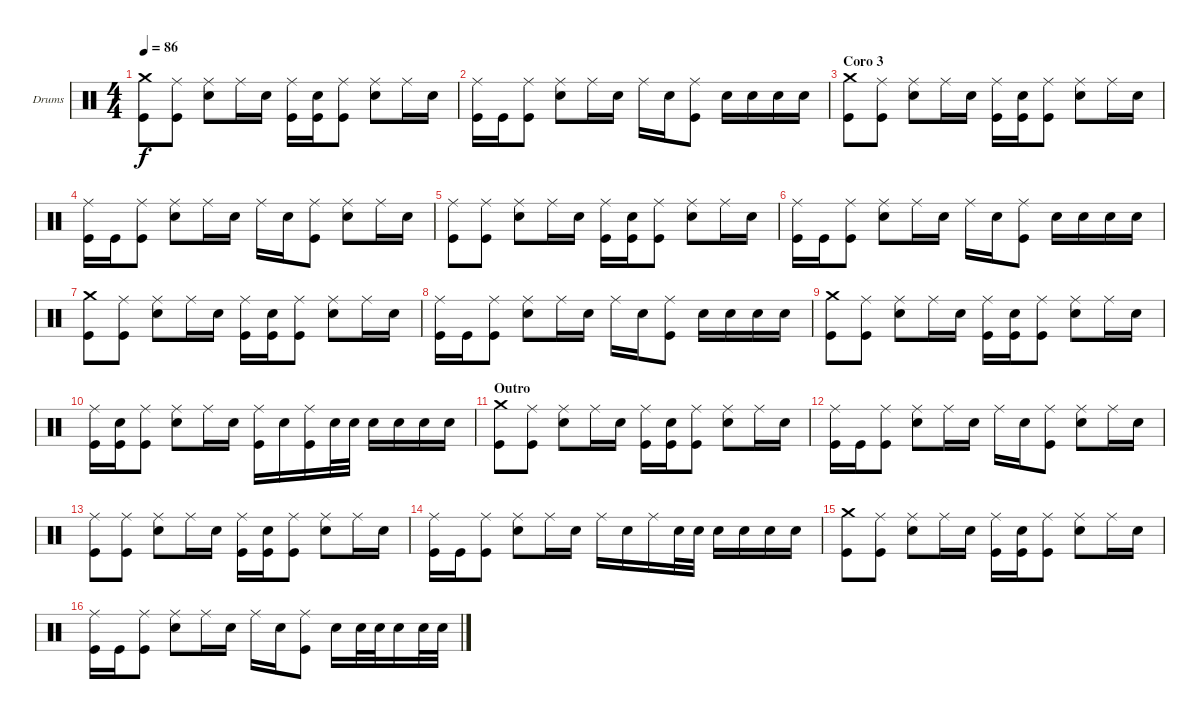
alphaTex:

\defaultSystemsLayout 4
\bracketExtendMode groupsimilarinstruments
\firstSystemTrackNameOrientation horizontal
\otherSystemsTrackNameOrientation horizontal
\track ("Drumkit" "Drums") {instrument percussion}
\staff {score}
\articulation defaults
\ts (4 4)
\tempo 86
\clef neutral
\ks c
("Crash medium (hit)" "Kick (hit)").8{dy f} ("Ride (middle)" "Kick (hit)").8 ("Ride (middle)" "Snare (hit) 2").8 "Ride (middle)".16 "Snare (hit) 2".16 ("Ride (middle)" "Kick (hit)").16 ("Snare (hit) 2" "Kick (hit)").16 ("Ride (middle)" "Kick (hit)").8 ("Ride (middle)" "Snare (hit) 2").8 "Ride (middle)".16 "Snare (hit) 2".16 |
("Ride (middle)" "Kick (hit)").16 "Kick (hit)".16 ("Ride (middle)" "Kick (hit)").8 ("Ride (middle)" "Snare (hit) 2").8 "Ride (middle)".16 "Snare (hit) 2".16 "Ride (middle)".16 "Snare (hit) 2".16 ("Ride (middle)" "Kick (hit)").8 "Snare (hit) 2".16 "Snare (hit) 2".16 "Snare (hit) 2".16 "Snare (hit) 2".16 |
\section ("" "Coro 3")
("Crash medium (hit)" "Kick (hit)").8 ("Ride (middle)" "Kick (hit)").8 ("Ride (middle)" "Snare (hit) 2").8 "Ride (middle)".16 "Snare (hit) 2".16 ("Ride (middle)" "Kick (hit)").16 ("Snare (hit) 2" "Kick (hit)").16 ("Ride (middle)" "Kick (hit)").8 ("Ride (middle)" "Snare (hit) 2").8 "Ride (middle)".16 "Snare (hit) 2".16 |
("Ride (middle)" "Kick (hit)").16 "Kick (hit)".16 ("Ride (middle)" "Kick (hit)").8 ("Ride (middle)" "Snare (hit) 2").8 "Ride (middle)".16 "Snare (hit) 2".16 "Ride (middle)".16 "Snare (hit) 2".16 ("Ride (middle)" "Kick (hit)").8 ("Ride (middle)" "Snare (hit) 2").8 "Ride (middle)".16 "Snare (hit) 2".16 |
("Ride (middle)" "Kick (hit)").8 ("Ride (middle)" "Kick (hit)").8 ("Ride (middle)" "Snare (hit) 2").8 "Ride (middle)".16 "Snare (hit) 2".16 ("Ride (middle)" "Kick (hit)").16 ("Snare (hit) 2" "Kick (hit)").16 ("Ride (middle)" "Kick (hit)").8 ("Ride (middle)" "Snare (hit) 2").8 "Ride (middle)".16 "Snare (hit) 2".16 |
("Ride (middle)" "Kick (hit)").16 "Kick (hit)".16 ("Ride (middle)" "Kick (hit)").8 ("Ride (middle)" "Snare (hit) 2").8 "Ride (middle)".16 "Snare (hit) 2".16 "Ride (middle)".16 "Snare (hit) 2".16 ("Ride (middle)" "Kick (hit)").8 "Snare (hit) 2".16 "Snare (hit) 2".16 "Snare (hit) 2".16 "Snare (hit) 2".16 |
("Crash medium (hit)" "Kick (hit)").8 ("Ride (middle)" "Kick (hit)").8 ("Ride (middle)" "Snare (hit) 2").8 "Ride (middle)".16 "Snare (hit) 2".16 ("Ride (middle)" "Kick (hit)").16 ("Snare (hit) 2" "Kick (hit)").16 ("Ride (middle)" "Kick (hit)").8 ("Ride (middle)" "Snare (hit) 2").8 "Ride (middle)".16 "Snare (hit) 2".16 |
("Ride (middle)" "Kick (hit)").16 "Kick (hit)".16 ("Ride (middle)" "Kick (hit)").8 ("Ride (middle)" "Snare (hit) 2").8 "Ride (middle)".16 "Snare (hit) 2".16 "Ride (middle)".16 "Snare (hit) 2".16 ("Ride (middle)" "Kick (hit)").8 "Snare (hit) 2".16 "Snare (hit) 2".16 "Snare (hit) 2".16 "Snare (hit) 2".16 |
("Crash medium (hit)" "Kick (hit)").8 ("Ride (middle)" "Kick (hit)").8 ("Ride (middle)" "Snare (hit) 2").8 "Ride (middle)".16 "Snare (hit) 2".16 ("Ride (middle)" "Kick (hit)").16 ("Snare (hit) 2" "Kick (hit)").16 ("Ride (middle)" "Kick (hit)").8 ("Ride (middle)" "Snare (hit) 2").8 "Ride (middle)".16 "Snare (hit) 2".16 |
("Ride (middle)" "Kick (hit)").16 ("Snare (hit) 2" "Kick (hit)").16 ("Ride (middle)" "Kick (hit)").8 ("Ride (middle)" "Snare (hit) 2").8 "Ride (middle)".16 "Snare (hit) 2".16 ("Ride (middle)" "Kick (hit)").16 "Snare (hit) 2".16 ("Ride (middle)" "Kick (hit)").16 "Snare (hit) 2".32 "Snare (hit) 2".32 "Snare (hit) 2".16 "Snare (hit) 2".16 "Snare (hit) 2".16 "Snare (hit) 2".16 |
\section ("" "Outro")
("Crash medium (hit)" "Kick (hit)").8 ("Ride (middle)" "Kick (hit)").8 ("Ride (middle)" "Snare (hit) 2").8 "Ride (middle)".16 "Snare (hit) 2".16 ("Ride (middle)" "Kick (hit)").16 ("Snare (hit) 2" "Kick (hit)").16 ("Ride (middle)" "Kick (hit)").8 ("Ride (middle)" "Snare (hit) 2").8 "Ride (middle)".16 "Snare (hit) 2".16 |
("Ride (middle)" "Kick (hit)").16 "Kick (hit)".16 ("Ride (middle)" "Kick (hit)").8 ("Ride (middle)" "Snare (hit) 2").8 "Ride (middle)".16 "Snare (hit) 2".16 "Ride (middle)".16 "Snare (hit) 2".16 ("Ride (middle)" "Kick (hit)").8 ("Ride (middle)" "Snare (hit) 2").8 "Ride (middle)".16 "Snare (hit) 2".16 |
("Ride (middle)" "Kick (hit)").8 ("Ride (middle)" "Kick (hit)").8 ("Ride (middle)" "Snare (hit) 2").8 "Ride (middle)".16 "Snare (hit) 2".16 ("Ride (middle)" "Kick (hit)").16 ("Snare (hit) 2" "Kick (hit)").16 ("Ride (middle)" "Kick (hit)").8 ("Ride (middle)" "Snare (hit) 2").8 "Ride (middle)".16 "Snare (hit) 2".16 |
("Ride (middle)" "Kick (hit)").16 "Kick (hit)".16 ("Ride (middle)" "Kick (hit)").8 ("Ride (middle)" "Snare (hit) 2").8 "Ride (middle)".16 "Snare (hit) 2".16 "Ride (middle)".16 "Snare (hit) 2".16 "Ride (middle)".16 "Snare (hit) 2".32 "Snare (hit) 2".32 "Snare (hit) 2".16 "Snare (hit) 2".16 "Snare (hit) 2".16 "Snare (hit) 2".16 |
("Crash medium (hit)" "Kick (hit)").8 ("Ride (middle)" "Kick (hit)").8 ("Ride (middle)" "Snare (hit) 2").8 "Ride (middle)".16 "Snare (hit) 2".16 ("Ride (middle)" "Kick (hit)").16 ("Snare (hit) 2" "Kick (hit)").16 ("Ride (middle)" "Kick (hit)").8 ("Ride (middle)" "Snare (hit) 2").8 "Ride (middle)".16 "Snare (hit) 2".16 |
("Ride (middle)" "Kick (hit)").16 "Kick (hit)".16 ("Ride (middle)" "Kick (hit)").8 ("Ride (middle)" "Snare (hit) 2").8 "Ride (middle)".16 "Snare (hit) 2".16 "Ride (middle)".16 "Snare (hit) 2".16 ("Ride (middle)" "Kick (hit)").8 "Snare (hit) 2".16 "Snare (hit) 2".32 "Snare (hit) 2".32 "Snare (hit) 2".16 "Snare (hit) 2".32 "Snare (hit) 2".32
